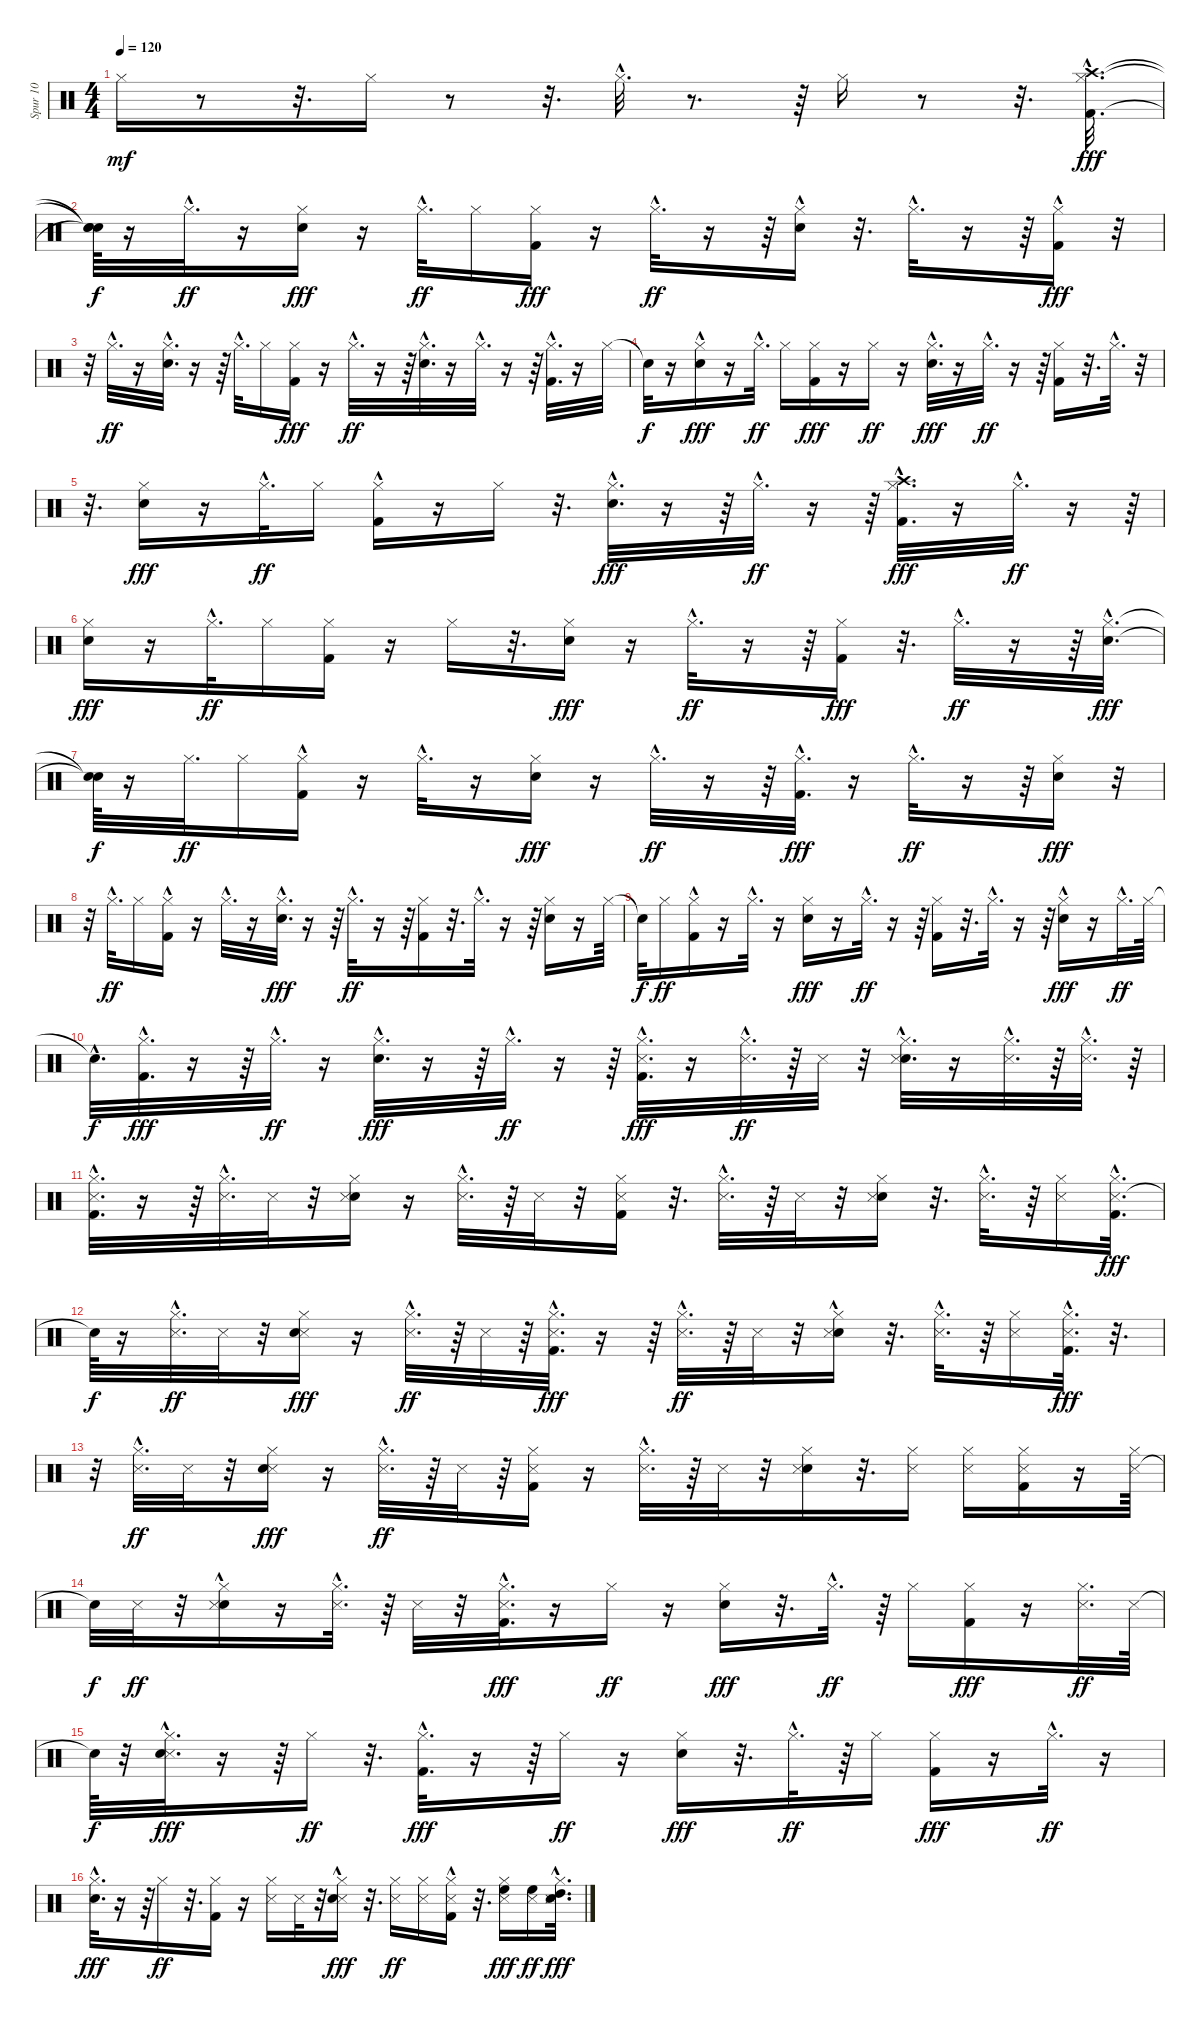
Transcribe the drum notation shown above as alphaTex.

\track ("Spur 10" "Spur 10") {instrument percussion}
\staff {score}
\articulation defaults
\ts (4 4)
\tempo 120
\clef neutral
\ks c "Hi-Hat (closed)".16{dy mf}
r.8 r.32{d} "Hi-Hat (closed)".16 r.8 r.32{d} "Hi-Hat (closed)"{hac}.32{d} r.8{d} r.64 "Hi-Hat (closed)".16 r.8 r.32{d} ("Crash high (hit)"{hac} "Hi-Hat (closed)"{hac} "Kick (hit) 2"{hac}).32{d dy fff} |
("Snare (hit)"{t} "Snare (hit)"{t} "Snare (hit)"{t}).64{dy f} r.16 "Hi-Hat (closed)"{hac}.32{d dy ff} r.16 ("Hi-Hat (closed)" "Snare (hit) 2").16{dy fff} r.16 "Hi-Hat (closed)"{hac}.32{d dy ff} "Hi-Hat (closed)".16 ("Hi-Hat (closed)" "Kick (hit) 2").16{dy fff} r.16 "Hi-Hat (closed)"{hac}.32{d dy ff} r.16 r.64 ("Snare (hit) 2"{hac} "Hi-Hat (closed)").16 r.32{d} "Hi-Hat (closed)"{hac}.32{d} r.16 r.64 ("Hi-Hat (closed)" "Kick (hit) 2"{hac}).16{dy fff} r.32 |
r.32 "Hi-Hat (closed)"{hac}.32{d dy ff} r.16 ("Snare (hit) 2"{hac} "Hi-Hat (closed)"{hac}).32{d} r.16 r.64 "Hi-Hat (closed)"{hac}.32{d} "Hi-Hat (closed)".16 ("Hi-Hat (closed)" "Kick (hit) 2").16{dy fff} r.16 "Hi-Hat (closed)"{hac}.32{d dy ff} r.16 r.64 ("Snare (hit) 2"{hac} "Hi-Hat (closed)"{hac}).32{d} r.16 "Hi-Hat (closed)"{hac}.32{d} r.16 r.64 ("Kick (hit) 2"{hac} "Hi-Hat (closed)"{hac}).32{d} r.16 "Hi-Hat (closed)".32 |
"Snare (hit)"{t}.32{dy f} r.16 ("Hi-Hat (closed)"{hac} "Snare (hit) 2").16{dy fff} r.16 "Hi-Hat (closed)"{hac}.32{d dy ff} "Hi-Hat (closed)".16 ("Hi-Hat (closed)" "Kick (hit) 2").16{dy fff} r.16 "Hi-Hat (closed)".16{dy ff} r.16 ("Hi-Hat (closed)"{hac} "Snare (hit) 2"{hac}).32{d dy fff} r.16 "Hi-Hat (closed)"{hac}.32{d dy ff} r.16 r.64 ("Kick (hit) 2" "Hi-Hat (closed)").16 r.32{d} "Hi-Hat (closed)"{hac}.32{d} r.32 |
r.32{d} ("Hi-Hat (closed)" "Snare (hit) 2").16{dy fff} r.16 "Hi-Hat (closed)"{hac}.32{d dy ff} "Hi-Hat (closed)".16 ("Kick (hit) 2" "Hi-Hat (closed)"{hac}).16 r.16 "Hi-Hat (closed)".16 r.32{d} ("Hi-Hat (closed)"{hac} "Snare (hit) 2"{hac}).32{d dy fff} r.16 r.64 "Hi-Hat (closed)"{hac}.32{d dy ff} r.16 r.64 ("Crash high (hit)"{hac} "Hi-Hat (closed)"{hac} "Kick (hit) 2"{hac}).32{d dy fff} r.16 "Hi-Hat (closed)"{hac}.32{d dy ff} r.16 r.64 |
("Hi-Hat (closed)" "Snare (hit) 2").16{dy fff} r.16 "Hi-Hat (closed)"{hac}.32{d dy ff} "Hi-Hat (closed)".16 ("Kick (hit) 2" "Hi-Hat (closed)").16 r.16 "Hi-Hat (closed)".16 r.32{d} ("Hi-Hat (closed)" "Snare (hit) 2").16{dy fff} r.16 "Hi-Hat (closed)"{hac}.32{d dy ff} r.16 r.64 ("Hi-Hat (closed)" "Kick (hit) 2").16{dy fff} r.32{d} "Hi-Hat (closed)"{hac}.32{d dy ff} r.16 r.64 ("Hi-Hat (closed)"{hac} "Snare (hit) 2"{hac}).32{d dy fff} |
("Snare (hit)"{t} "Snare (hit)"{t}).64{dy f} r.16 "Hi-Hat (closed)".32{d dy ff} "Hi-Hat (closed)".16 ("Kick (hit) 2"{hac} "Hi-Hat (closed)").16 r.16 "Hi-Hat (closed)"{hac}.32{d} r.16 ("Hi-Hat (closed)" "Snare (hit) 2").16{dy fff} r.16 "Hi-Hat (closed)"{hac}.32{d dy ff} r.16 r.64 ("Hi-Hat (closed)"{hac} "Kick (hit) 2"{hac}).32{d dy fff} r.16 "Hi-Hat (closed)"{hac}.32{d dy ff} r.16 r.64 ("Hi-Hat (closed)" "Snare (hit) 2").16{dy fff} r.32 |
r.32 "Hi-Hat (closed)"{hac}.32{d dy ff} "Hi-Hat (closed)".16 ("Kick (hit) 2"{hac} "Hi-Hat (closed)").16 r.16 "Hi-Hat (closed)"{hac}.32{d} r.16 ("Hi-Hat (closed)"{hac} "Snare (hit) 2"{hac}).32{d dy fff} r.16 r.64 "Hi-Hat (closed)"{hac}.32{d dy ff} r.16 r.64 ("Kick (hit) 2" "Hi-Hat (closed)").16 r.32{d} "Hi-Hat (closed)"{hac}.32{d} r.16 r.64 ("Snare (hit) 2" "Hi-Hat (closed)").16 r.16 "Hi-Hat (closed)".64 |
"Snare (hit)"{t}.32{dy f} "Hi-Hat (closed)".16{dy ff} ("Kick (hit) 2"{hac} "Hi-Hat (closed)").16 r.16 "Hi-Hat (closed)"{hac}.32{d} r.16 ("Hi-Hat (closed)" "Snare (hit) 2").16{dy fff} r.16 "Hi-Hat (closed)"{hac}.32{d dy ff} r.16 r.64 ("Kick (hit) 2" "Hi-Hat (closed)").16 r.32{d} "Hi-Hat (closed)"{hac}.32{d} r.16 r.64 ("Hi-Hat (closed)" "Snare (hit) 2"{hac}).16{dy fff} r.16 "Hi-Hat (closed)"{hac}.32{d dy ff} "Hi-Hat (closed)".64 |
"Snare (hit)"{hac t}.32{d dy f} ("Hi-Hat (closed)"{hac} "Kick (hit) 2"{hac}).32{d dy fff} r.16 r.64 "Hi-Hat (closed)"{hac}.32{d dy ff} r.16 ("Hi-Hat (closed)"{hac} "Snare (hit) 2"{hac}).32{d dy fff} r.16 r.64 "Hi-Hat (closed)"{hac}.32{d dy ff} r.16 r.64 ("Snare (side stick) 3" "Hi-Hat (closed)"{hac} "Kick (hit) 2"{hac}).32{d dy fff} r.16 ("Snare (side stick) 3" "Hi-Hat (closed)"{hac}).32{d dy ff} r.64 "Snare (side stick) 3".32 r.32 ("Hi-Hat (closed)"{hac} "Snare (hit) 2"{hac} "Snare (side stick) 3").32{d} r.16 ("Snare (side stick) 3" "Hi-Hat (closed)"{hac}).32{d} r.64 ("Snare (side stick) 3" "Hi-Hat (closed)"{hac}).32{d} r.64 |
("Hi-Hat (closed)"{hac} "Kick (hit) 2"{hac} "Snare (side stick) 3").32{d} r.16 r.64 ("Snare (side stick) 3" "Hi-Hat (closed)"{hac}).32{d} "Snare (side stick) 3".32 r.32 ("Snare (hit) 2" "Snare (side stick) 3" "Hi-Hat (closed)").16 r.16 ("Snare (side stick) 3" "Hi-Hat (closed)"{hac}).32{d} r.64 "Snare (side stick) 3".32 r.32 ("Kick (hit) 2" "Snare (side stick) 3" "Hi-Hat (closed)").16 r.32{d} ("Hi-Hat (closed)"{hac} "Snare (side stick) 3").32{d} r.64 "Snare (side stick) 3".32 r.32 ("Snare (hit) 2" "Snare (side stick) 3" "Hi-Hat (closed)").16 r.32{d} ("Hi-Hat (closed)"{hac} "Snare (side stick) 3").32{d} r.64 ("Snare (side stick) 3" "Hi-Hat (closed)").16 ("Snare (side stick) 3" "Hi-Hat (closed)"{hac} "Kick (hit) 2"{hac}).32{d dy fff} |
"Snare (hit)"{t}.64{dy f} r.16 ("Hi-Hat (closed)"{hac} "Snare (side stick) 3").32{d dy ff} "Snare (side stick) 3".32 r.32 ("Snare (side stick) 3" "Hi-Hat (closed)" "Snare (hit) 2").16{dy fff} r.16 ("Hi-Hat (closed)"{hac} "Snare (side stick) 3").32{d dy ff} r.64 "Snare (side stick) 3".32 r.64 ("Snare (side stick) 3" "Hi-Hat (closed)"{hac} "Kick (hit) 2"{hac}).32{d dy fff} r.16 r.64 ("Hi-Hat (closed)"{hac} "Snare (side stick) 3").32{d dy ff} r.64 "Snare (side stick) 3".32 r.32 ("Snare (hit) 2"{hac} "Snare (side stick) 3" "Hi-Hat (closed)").16 r.32{d} ("Snare (side stick) 3" "Hi-Hat (closed)"{hac}).32{d} r.64 ("Hi-Hat (closed)" "Snare (side stick) 3").16 ("Snare (side stick) 3" "Hi-Hat (closed)"{hac} "Kick (hit) 2"{hac}).32{d dy fff} r.32{d} |
r.32 ("Snare (side stick) 3" "Hi-Hat (closed)"{hac}).32{d dy ff} "Snare (side stick) 3".32 r.32 ("Snare (side stick) 3" "Hi-Hat (closed)" "Snare (hit) 2").16{dy fff} r.16 ("Hi-Hat (closed)"{hac} "Snare (side stick) 3").32{d dy ff} r.64 "Snare (side stick) 3".32 r.64 ("Hi-Hat (closed)" "Kick (hit) 2" "Snare (side stick) 3").16 r.16 ("Snare (side stick) 3" "Hi-Hat (closed)"{hac}).32{d} r.64 "Snare (side stick) 3".32 r.32 ("Hi-Hat (closed)" "Snare (hit) 2" "Snare (side stick) 3").16 r.32{d} ("Snare (side stick) 3" "Hi-Hat (closed)").16 ("Snare (side stick) 3" "Hi-Hat (closed)").16 ("Kick (hit) 2" "Snare (side stick) 3" "Hi-Hat (closed)").16 r.16 ("Snare (side stick) 3" "Hi-Hat (closed)").64 |
"Snare (hit)"{t}.32{dy f} "Snare (side stick) 3".32{dy ff} r.32 ("Hi-Hat (closed)"{hac} "Snare (hit) 2" "Snare (side stick) 3").16 r.16 ("Hi-Hat (closed)"{hac} "Snare (side stick) 3").32{d} r.64 "Snare (side stick) 3".32 r.32 ("Snare (side stick) 3" "Hi-Hat (closed)"{hac} "Kick (hit) 2"{hac}).32{d dy fff} r.16 "Hi-Hat (closed)".16{dy ff} r.16 ("Hi-Hat (closed)" "Snare (hit) 2").16{dy fff} r.32{d} "Hi-Hat (closed)"{hac}.32{d dy ff} r.64 "Hi-Hat (closed)".16 ("Hi-Hat (closed)" "Kick (hit) 2").16{dy fff} r.16 ("Snare (side stick) 3" "Hi-Hat (closed)").32{d dy ff} "Snare (side stick) 3".64 |
"Snare (hit)"{t}.64{dy f} r.32 ("Snare (side stick) 3" "Hi-Hat (closed)"{hac} "Snare (hit) 2"{hac}).32{d dy fff} r.16 r.64 "Hi-Hat (closed)".16{dy ff} r.32{d} ("Hi-Hat (closed)"{hac} "Kick (hit) 2"{hac}).32{d dy fff} r.16 r.64 "Hi-Hat (closed)".16{dy ff} r.16 ("Hi-Hat (closed)" "Snare (hit) 2").16{dy fff} r.32{d} "Hi-Hat (closed)"{hac}.32{d dy ff} r.64 "Hi-Hat (closed)".16 ("Hi-Hat (closed)" "Kick (hit) 2").16{dy fff} r.16 "Hi-Hat (closed)"{hac}.32{d dy ff} r.16 |
("Hi-Hat (closed)"{hac} "Snare (hit) 2"{hac}).32{d dy fff} r.16 r.64 "Hi-Hat (closed)".16{dy ff} r.32{d} ("Kick (hit) 2" "Hi-Hat (closed)").16 r.16 ("Snare (side stick) 3" "Hi-Hat (closed)").16 "Snare (side stick) 3".32 r.32 ("Snare (side stick) 3" "Hi-Hat (closed)" "Snare (hit) 2"{hac}).16{dy fff} r.32{d} ("Snare (side stick) 3" "Hi-Hat (closed)").16{dy ff} ("Snare (side stick) 3" "Hi-Hat (closed)").16 ("Hi-Hat (closed)"{hac} "Kick (hit) 2" "Snare (side stick) 3").16 r.32{d} ("Snare (side stick) 3" "Hi-Hat (closed)" "High Floor Tom (hit)").16{dy fff} ("High Floor Tom (hit)" "Snare (side stick) 3").16{dy ff} ("Snare (side stick) 3" "Hi-Hat (closed)"{hac} "Snare (hit) 2"{hac} "High Tom (hit)"{hac}).32{d dy fff}
